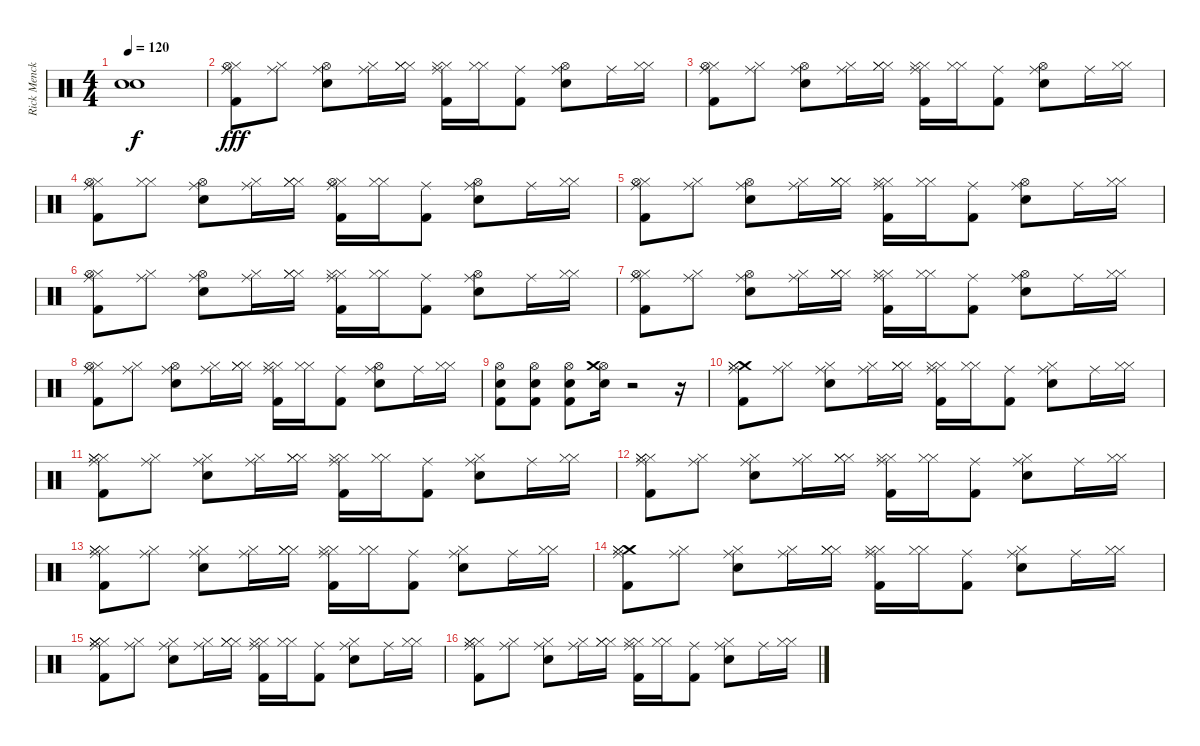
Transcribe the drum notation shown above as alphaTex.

\track ("Rick Menck" "Rick Menck") {instrument percussion}
\staff {score}
\articulation defaults
\ts (4 4)
\tempo 120
\clef neutral
\ks c
("Snare (hit)"{t} "Snare (hit)"{t}).1{dy f} |
("Ride (middle)" "Kick (hit) 2" "Hi-Hat (closed)" "Hi-Hat (open)").8{dy fff} ("Ride (middle)" "Hi-Hat (closed)").8 ("Ride (middle)" "Snare (hit) 2" "Hi-Hat (open)").8 ("Ride (middle)" "Hi-Hat (closed)").16 ("Hi-Hat (closed)" "Hi-Hat (closed)" "Hi-Hat (closed)").16 ("Ride (middle)" "Kick (hit) 2" "Hi-Hat (closed)" "Hi-Hat (closed)").16 ("Hi-Hat (closed)" "Hi-Hat (closed)").16 ("Ride (middle)" "Kick (hit) 2").8 ("Ride (middle)" "Snare (hit) 2" "Hi-Hat (open)").8 "Ride (middle)".16 ("Hi-Hat (closed)" "Hi-Hat (closed)").16 |
("Ride (middle)" "Kick (hit) 2" "Hi-Hat (closed)" "Hi-Hat (open)").8 ("Ride (middle)" "Hi-Hat (closed)").8 ("Ride (middle)" "Snare (hit) 2" "Hi-Hat (open)").8 ("Ride (middle)" "Hi-Hat (closed)").16 ("Hi-Hat (closed)" "Hi-Hat (closed)" "Hi-Hat (closed)").16 ("Ride (middle)" "Kick (hit) 2" "Hi-Hat (closed)" "Hi-Hat (closed)").16 ("Hi-Hat (closed)" "Hi-Hat (closed)").16 ("Ride (middle)" "Kick (hit) 2").8 ("Ride (middle)" "Snare (hit) 2" "Hi-Hat (open)").8 "Ride (middle)".16 ("Hi-Hat (closed)" "Hi-Hat (closed)").16 |
("Ride (middle)" "Kick (hit) 2" "Hi-Hat (closed)" "Hi-Hat (open)").8 ("Hi-Hat (closed)" "Hi-Hat (closed)").8 ("Ride (middle)" "Snare (hit) 2" "Hi-Hat (open)").8 ("Ride (middle)" "Hi-Hat (closed)").16 ("Hi-Hat (closed)" "Hi-Hat (closed)" "Hi-Hat (closed)").16 ("Ride (middle)" "Kick (hit) 2" "Hi-Hat (closed)" "Hi-Hat (open)").16 ("Hi-Hat (closed)" "Hi-Hat (closed)").16 ("Ride (middle)" "Kick (hit) 2").8 ("Ride (middle)" "Snare (hit) 2" "Hi-Hat (open)").8 "Ride (middle)".16 ("Hi-Hat (closed)" "Hi-Hat (closed)").16 |
("Ride (middle)" "Kick (hit) 2" "Hi-Hat (closed)" "Hi-Hat (open)").8 ("Ride (middle)" "Hi-Hat (closed)").8 ("Ride (middle)" "Snare (hit) 2" "Hi-Hat (open)").8 ("Ride (middle)" "Hi-Hat (closed)").16 ("Hi-Hat (closed)" "Hi-Hat (closed)" "Hi-Hat (closed)").16 ("Ride (middle)" "Kick (hit) 2" "Hi-Hat (closed)" "Hi-Hat (closed)").16 ("Hi-Hat (closed)" "Hi-Hat (closed)").16 ("Ride (middle)" "Kick (hit) 2").8 ("Ride (middle)" "Snare (hit) 2" "Hi-Hat (open)").8 "Ride (middle)".16 ("Hi-Hat (closed)" "Hi-Hat (closed)").16 |
("Ride (middle)" "Kick (hit) 2" "Hi-Hat (closed)" "Hi-Hat (open)").8 ("Ride (middle)" "Hi-Hat (closed)").8 ("Ride (middle)" "Snare (hit) 2" "Hi-Hat (open)").8 ("Ride (middle)" "Hi-Hat (closed)").16 ("Hi-Hat (closed)" "Hi-Hat (closed)" "Hi-Hat (closed)").16 ("Ride (middle)" "Kick (hit) 2" "Hi-Hat (closed)" "Hi-Hat (closed)").16 ("Hi-Hat (closed)" "Hi-Hat (closed)").16 ("Ride (middle)" "Kick (hit) 2").8 ("Ride (middle)" "Snare (hit) 2" "Hi-Hat (open)").8 "Ride (middle)".16 ("Hi-Hat (closed)" "Hi-Hat (closed)").16 |
("Ride (middle)" "Kick (hit) 2" "Hi-Hat (closed)" "Hi-Hat (open)").8 ("Ride (middle)" "Hi-Hat (closed)").8 ("Ride (middle)" "Snare (hit) 2" "Hi-Hat (open)").8 ("Ride (middle)" "Hi-Hat (closed)").16 ("Hi-Hat (closed)" "Hi-Hat (closed)" "Hi-Hat (closed)").16 ("Ride (middle)" "Kick (hit) 2" "Hi-Hat (closed)" "Hi-Hat (closed)").16 ("Hi-Hat (closed)" "Hi-Hat (closed)").16 ("Ride (middle)" "Kick (hit) 2").8 ("Ride (middle)" "Snare (hit) 2" "Hi-Hat (open)").8 "Ride (middle)".16 ("Hi-Hat (closed)" "Hi-Hat (closed)").16 |
("Ride (middle)" "Kick (hit) 2" "Hi-Hat (closed)" "Hi-Hat (open)").8 ("Ride (middle)" "Hi-Hat (closed)").8 ("Ride (middle)" "Snare (hit) 2" "Hi-Hat (open)").8 ("Ride (middle)" "Hi-Hat (closed)").16 ("Hi-Hat (closed)" "Hi-Hat (closed)" "Hi-Hat (closed)").16 ("Ride (middle)" "Kick (hit) 2" "Hi-Hat (closed)" "Hi-Hat (closed)").16 ("Hi-Hat (closed)" "Hi-Hat (closed)").16 ("Ride (middle)" "Kick (hit) 2").8 ("Ride (middle)" "Snare (hit) 2" "Hi-Hat (open)").8 "Ride (middle)".16 ("Hi-Hat (closed)" "Hi-Hat (closed)").16 |
("Hi-Hat (open)" "Kick (hit) 2" "Snare (hit) 2").8 ("Hi-Hat (open)" "Kick (hit) 2" "Snare (hit) 2").8 ("Hi-Hat (open)" "Kick (hit) 2" "Snare (hit) 2").8 ("Hi-Hat (open)" "Crash medium (hit)" "Snare (hit) 2").16 r.2 r.16 |
("Ride (middle)" "Crash medium (hit)" "Kick (hit) 2" "Hi-Hat (closed)" "Hi-Hat (closed)").8 ("Ride (middle)" "Hi-Hat (closed)").8 ("Ride (middle)" "Snare (hit) 2" "Hi-Hat (closed)").8 ("Ride (middle)" "Hi-Hat (closed)").16 ("Hi-Hat (closed)" "Hi-Hat (closed)" "Hi-Hat (closed)").16 ("Ride (middle)" "Kick (hit) 2" "Hi-Hat (closed)" "Hi-Hat (closed)").16 ("Hi-Hat (closed)" "Hi-Hat (closed)").16 ("Ride (middle)" "Kick (hit) 2").8 ("Ride (middle)" "Snare (hit) 2" "Hi-Hat (closed)").8 "Ride (middle)".16 ("Hi-Hat (closed)" "Hi-Hat (closed)").16 |
("Ride (middle)" "Hi-Hat (closed)" "Kick (hit) 2" "Hi-Hat (closed)" "Hi-Hat (closed)").8 ("Ride (middle)" "Hi-Hat (closed)").8 ("Ride (middle)" "Snare (hit) 2" "Hi-Hat (closed)").8 ("Ride (middle)" "Hi-Hat (closed)").16 ("Hi-Hat (closed)" "Hi-Hat (closed)" "Hi-Hat (closed)").16 ("Ride (middle)" "Kick (hit) 2" "Hi-Hat (closed)" "Hi-Hat (closed)").16 ("Hi-Hat (closed)" "Hi-Hat (closed)").16 ("Ride (middle)" "Kick (hit) 2").8 ("Ride (middle)" "Snare (hit) 2" "Hi-Hat (closed)").8 "Ride (middle)".16 ("Hi-Hat (closed)" "Hi-Hat (closed)").16 |
("Ride (middle)" "Hi-Hat (closed)" "Kick (hit) 2" "Hi-Hat (closed)" "Hi-Hat (closed)").8 ("Ride (middle)" "Hi-Hat (closed)").8 ("Ride (middle)" "Snare (hit) 2" "Hi-Hat (closed)").8 ("Ride (middle)" "Hi-Hat (closed)").16 ("Hi-Hat (closed)" "Hi-Hat (closed)" "Hi-Hat (closed)").16 ("Ride (middle)" "Kick (hit) 2" "Hi-Hat (closed)" "Hi-Hat (closed)").16 ("Hi-Hat (closed)" "Hi-Hat (closed)").16 ("Ride (middle)" "Kick (hit) 2").8 ("Ride (middle)" "Snare (hit) 2" "Hi-Hat (closed)").8 "Ride (middle)".16 ("Hi-Hat (closed)" "Hi-Hat (closed)").16 |
("Ride (middle)" "Hi-Hat (closed)" "Kick (hit) 2" "Hi-Hat (closed)" "Hi-Hat (closed)").8 ("Ride (middle)" "Hi-Hat (closed)").8 ("Ride (middle)" "Snare (hit) 2" "Hi-Hat (closed)").8 ("Ride (middle)" "Hi-Hat (closed)").16 ("Hi-Hat (closed)" "Hi-Hat (closed)" "Hi-Hat (closed)").16 ("Ride (middle)" "Kick (hit) 2" "Hi-Hat (closed)" "Hi-Hat (closed)").16 ("Hi-Hat (closed)" "Hi-Hat (closed)").16 ("Ride (middle)" "Kick (hit) 2").8 ("Ride (middle)" "Snare (hit) 2" "Hi-Hat (closed)").8 "Ride (middle)".16 ("Hi-Hat (closed)" "Hi-Hat (closed)").16 |
("Ride (middle)" "Crash medium (hit)" "Kick (hit) 2" "Hi-Hat (closed)" "Hi-Hat (closed)").8 ("Ride (middle)" "Hi-Hat (closed)").8 ("Ride (middle)" "Snare (hit) 2" "Hi-Hat (closed)").8 ("Ride (middle)" "Hi-Hat (closed)").16 ("Hi-Hat (closed)" "Hi-Hat (closed)" "Hi-Hat (closed)").16 ("Ride (middle)" "Kick (hit) 2" "Hi-Hat (closed)" "Hi-Hat (closed)").16 ("Hi-Hat (closed)" "Hi-Hat (closed)").16 ("Ride (middle)" "Kick (hit) 2").8 ("Ride (middle)" "Snare (hit) 2" "Hi-Hat (closed)").8 "Ride (middle)".16 ("Hi-Hat (closed)" "Hi-Hat (closed)").16 |
("Ride (middle)" "Hi-Hat (closed)" "Hi-Hat (closed)" "Kick (hit) 2" "Hi-Hat (closed)" "Hi-Hat (closed)").8 ("Ride (middle)" "Hi-Hat (closed)").8 ("Ride (middle)" "Snare (hit) 2" "Hi-Hat (closed)").8 ("Ride (middle)" "Hi-Hat (closed)").16 ("Hi-Hat (closed)" "Hi-Hat (closed)" "Hi-Hat (closed)").16 ("Ride (middle)" "Kick (hit) 2" "Hi-Hat (closed)" "Hi-Hat (closed)").16 ("Hi-Hat (closed)" "Hi-Hat (closed)").16 ("Ride (middle)" "Kick (hit) 2").8 ("Ride (middle)" "Snare (hit) 2" "Hi-Hat (closed)").8 "Ride (middle)".16 ("Hi-Hat (closed)" "Hi-Hat (closed)").16 |
("Ride (middle)" "Hi-Hat (closed)" "Kick (hit) 2" "Hi-Hat (closed)" "Hi-Hat (closed)").8 ("Ride (middle)" "Hi-Hat (closed)").8 ("Ride (middle)" "Snare (hit) 2" "Hi-Hat (closed)").8 ("Ride (middle)" "Hi-Hat (closed)").16 ("Hi-Hat (closed)" "Hi-Hat (closed)" "Hi-Hat (closed)").16 ("Ride (middle)" "Kick (hit) 2" "Hi-Hat (closed)" "Hi-Hat (closed)").16 ("Hi-Hat (closed)" "Hi-Hat (closed)").16 ("Ride (middle)" "Kick (hit) 2").8 ("Ride (middle)" "Snare (hit) 2" "Hi-Hat (closed)").8 "Ride (middle)".16 ("Hi-Hat (closed)" "Hi-Hat (closed)").16
